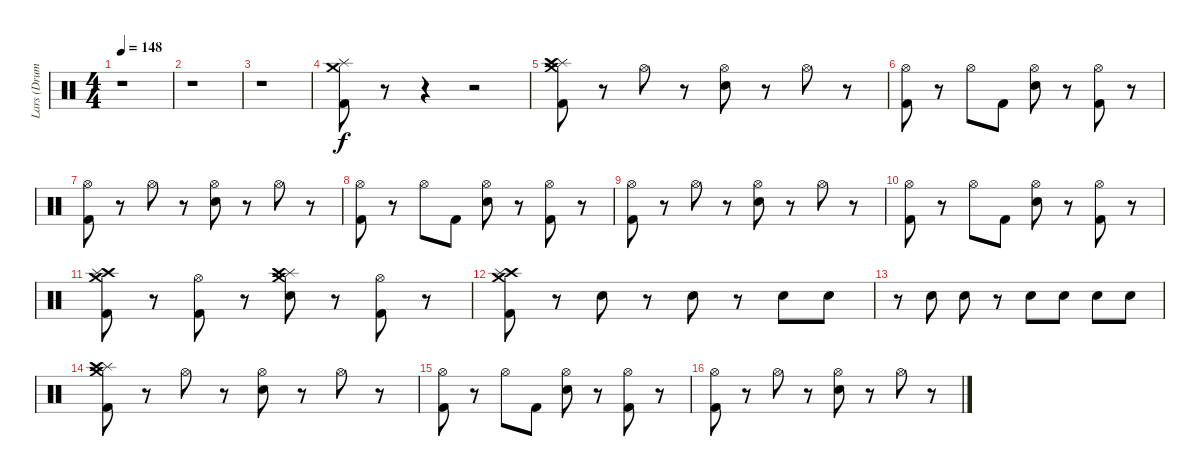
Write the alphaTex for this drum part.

\track ("Lars (Drums)" "Lars (Drum") {instrument percussion}
\staff {score}
\articulation defaults
\ts (4 4)
\tempo 148
\clef neutral
\ks c
r.1{dy f} |
r.1 |
r.1 |
("Crash medium (hit)" "Splash (hit)" "Kick (hit) 2").8 r.8 r.4 r.2 |
("Splash (hit)" "Crash medium (hit)" "Crash high (hit)" "Kick (hit) 2").8 r.8 "Hi-Hat (open)".8 r.8 ("Hi-Hat (open)" "Snare (hit) 2").8 r.8 "Hi-Hat (open)".8 r.8 |
("Hi-Hat (open)" "Kick (hit) 2").8 r.8 "Hi-Hat (open)".8 "Kick (hit) 2".8 ("Hi-Hat (open)" "Snare (hit) 2").8 r.8 ("Hi-Hat (open)" "Kick (hit) 2").8 r.8 |
("Hi-Hat (open)" "Kick (hit) 2").8 r.8 "Hi-Hat (open)".8 r.8 ("Hi-Hat (open)" "Snare (hit) 2").8 r.8 "Hi-Hat (open)".8 r.8 |
("Hi-Hat (open)" "Kick (hit) 2").8 r.8 "Hi-Hat (open)".8 "Kick (hit) 2".8 ("Hi-Hat (open)" "Snare (hit) 2").8 r.8 ("Hi-Hat (open)" "Kick (hit) 2").8 r.8 |
("Hi-Hat (open)" "Kick (hit) 2").8 r.8 "Hi-Hat (open)".8 r.8 ("Hi-Hat (open)" "Snare (hit) 2").8 r.8 "Hi-Hat (open)".8 r.8 |
("Hi-Hat (open)" "Kick (hit) 2").8 r.8 "Hi-Hat (open)".8 "Kick (hit) 2".8 ("Hi-Hat (open)" "Snare (hit) 2").8 r.8 ("Hi-Hat (open)" "Kick (hit) 2").8 r.8 |
("Crash medium (hit)" "Crash high (hit)" "Splash (hit)" "Kick (hit) 2").8 r.8 ("Kick (hit) 2" "Hi-Hat (open)").8 r.8 ("Crash medium (hit)" "Splash (hit)" "Crash high (hit)" "Snare (hit) 2").8 r.8 ("Kick (hit) 2" "Hi-Hat (open)").8 r.8 |
("Kick (hit) 2" "Crash high (hit)" "Splash (hit)" "Crash medium (hit)").8 r.8 "Snare (hit) 2".8 r.8 "Snare (hit) 2".8 r.8 "Snare (hit) 2".8 "Snare (hit) 2".8 |
r.8 "Snare (hit) 2".8 "Snare (hit) 2".8 r.8 "Snare (hit) 2".8 "Snare (hit) 2".8 "Snare (hit) 2".8 "Snare (hit) 2".8 |
("Splash (hit)" "Crash medium (hit)" "Crash high (hit)" "Kick (hit) 2").8 r.8 "Hi-Hat (open)".8 r.8 ("Hi-Hat (open)" "Snare (hit) 2").8 r.8 "Hi-Hat (open)".8 r.8 |
("Hi-Hat (open)" "Kick (hit) 2").8 r.8 "Hi-Hat (open)".8 "Kick (hit) 2".8 ("Hi-Hat (open)" "Snare (hit) 2").8 r.8 ("Hi-Hat (open)" "Kick (hit) 2").8 r.8 |
("Hi-Hat (open)" "Kick (hit) 2").8 r.8 "Hi-Hat (open)".8 r.8 ("Hi-Hat (open)" "Snare (hit) 2").8 r.8 "Hi-Hat (open)".8 r.8
